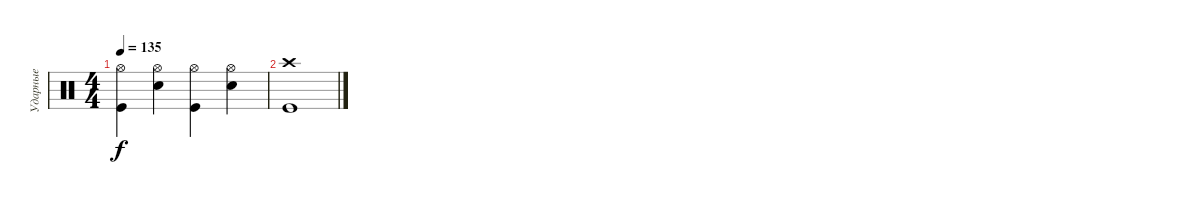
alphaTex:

\track ("Ударные" "Ударные") {instrument percussion}
\staff {score}
\articulation defaults
\ts (4 4)
\tempo 135
\clef neutral
\ks c
("Hi-Hat (open)" "Kick (hit)").4{dy f} ("Hi-Hat (open)" "Snare (hit) 2").4 ("Hi-Hat (open)" "Kick (hit)").4 ("Hi-Hat (open)" "Snare (hit) 2").4 |
("Crash high (hit)" "Kick (hit)").1
